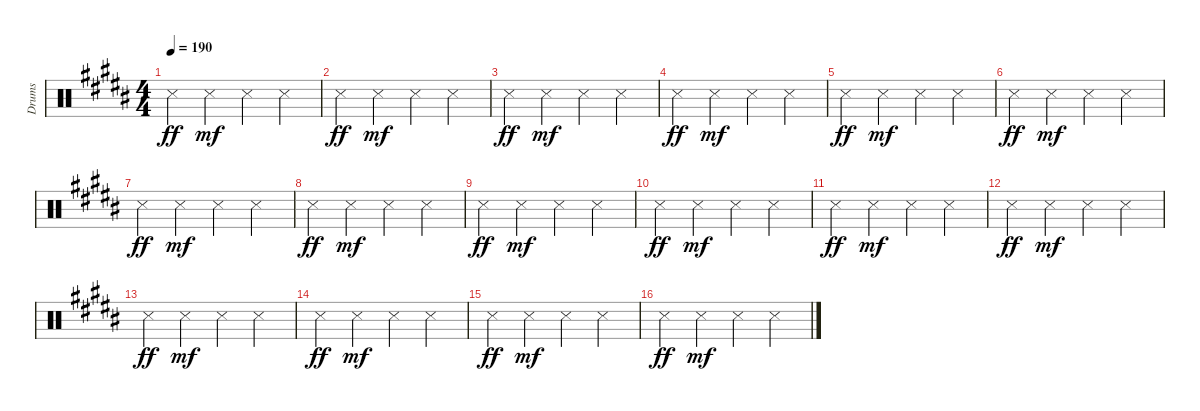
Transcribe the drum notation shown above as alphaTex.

\bracketExtendMode groupsimilarinstruments
\otherSystemsTrackNameOrientation horizontal
\track ("Drumkit" "Drums") {mute instrument percussion}
\staff {score}
\articulation defaults
\ts (4 4)
\tempo 190
\clef neutral
\scale
0.390805
\ks b "Snare (side stick) 3"{acc forcenatural}.4{dy ff} "Snare (side stick) 3"{acc forcenatural}.4{dy mf} "Snare (side stick) 3"{acc forcenatural}.4 "Snare (side stick) 3"{acc forcenatural}.4
|
\scale
0.218391 "Snare (side stick) 3"{acc forcenatural}.4{dy ff} "Snare (side stick) 3"{acc forcenatural}.4{dy mf} "Snare (side stick) 3"{acc forcenatural}.4 "Snare (side stick) 3"{acc forcenatural}.4 |
\scale
0.333333 "Snare (side stick) 3"{acc forcenatural}.4{dy ff} "Snare (side stick) 3"{acc forcenatural}.4{dy mf} "Snare (side stick) 3"{acc forcenatural}.4 "Snare (side stick) 3"{acc forcenatural}.4 |
\scale
0.333333 "Snare (side stick) 3"{acc forcenatural}.4{dy ff} "Snare (side stick) 3"{acc forcenatural}.4{dy mf} "Snare (side stick) 3"{acc forcenatural}.4 "Snare (side stick) 3"{acc forcenatural}.4 |
\scale
0.333333 "Snare (side stick) 3"{acc forcenatural}.4{dy ff} "Snare (side stick) 3"{acc forcenatural}.4{dy mf} "Snare (side stick) 3"{acc forcenatural}.4 "Snare (side stick) 3"{acc forcenatural}.4 |
\scale
0.333333 "Snare (side stick) 3"{acc forcenatural}.4{dy ff} "Snare (side stick) 3"{acc forcenatural}.4{dy mf} "Snare (side stick) 3"{acc forcenatural}.4 "Snare (side stick) 3"{acc forcenatural}.4 |
\scale
0.333333 "Snare (side stick) 3"{acc forcenatural}.4{dy ff} "Snare (side stick) 3"{acc forcenatural}.4{dy mf} "Snare (side stick) 3"{acc forcenatural}.4 "Snare (side stick) 3"{acc forcenatural}.4 |
\scale
0.333333 "Snare (side stick) 3"{acc forcenatural}.4{dy ff} "Snare (side stick) 3"{acc forcenatural}.4{dy mf} "Snare (side stick) 3"{acc forcenatural}.4 "Snare (side stick) 3"{acc forcenatural}.4 |
\scale
0.333333 "Snare (side stick) 3"{acc forcenatural}.4{dy ff} "Snare (side stick) 3"{acc forcenatural}.4{dy mf} "Snare (side stick) 3"{acc forcenatural}.4 "Snare (side stick) 3"{acc forcenatural}.4 |
\scale
0.333333 "Snare (side stick) 3"{acc forcenatural}.4{dy ff} "Snare (side stick) 3"{acc forcenatural}.4{dy mf} "Snare (side stick) 3"{acc forcenatural}.4 "Snare (side stick) 3"{acc forcenatural}.4 |
\scale
0.333333 "Snare (side stick) 3"{acc forcenatural}.4{dy ff} "Snare (side stick) 3"{acc forcenatural}.4{dy mf} "Snare (side stick) 3"{acc forcenatural}.4 "Snare (side stick) 3"{acc forcenatural}.4 |
\scale
0.333333 "Snare (side stick) 3"{acc forcenatural}.4{dy ff} "Snare (side stick) 3"{acc forcenatural}.4{dy mf} "Snare (side stick) 3"{acc forcenatural}.4 "Snare (side stick) 3"{acc forcenatural}.4 |
\scale
0.333333 "Snare (side stick) 3"{acc forcenatural}.4{dy ff} "Snare (side stick) 3"{acc forcenatural}.4{dy mf} "Snare (side stick) 3"{acc forcenatural}.4 "Snare (side stick) 3"{acc forcenatural}.4 |
\scale
0.333333 "Snare (side stick) 3"{acc forcenatural}.4{dy ff} "Snare (side stick) 3"{acc forcenatural}.4{dy mf} "Snare (side stick) 3"{acc forcenatural}.4 "Snare (side stick) 3"{acc forcenatural}.4 |
\scale
0.333333 "Snare (side stick) 3"{acc forcenatural}.4{dy ff} "Snare (side stick) 3"{acc forcenatural}.4{dy mf} "Snare (side stick) 3"{acc forcenatural}.4 "Snare (side stick) 3"{acc forcenatural}.4 |
\scale
0.333333 "Snare (side stick) 3"{acc forcenatural}.4{dy ff} "Snare (side stick) 3"{acc forcenatural}.4{dy mf} "Snare (side stick) 3"{acc forcenatural}.4 "Snare (side stick) 3"{acc forcenatural}.4
